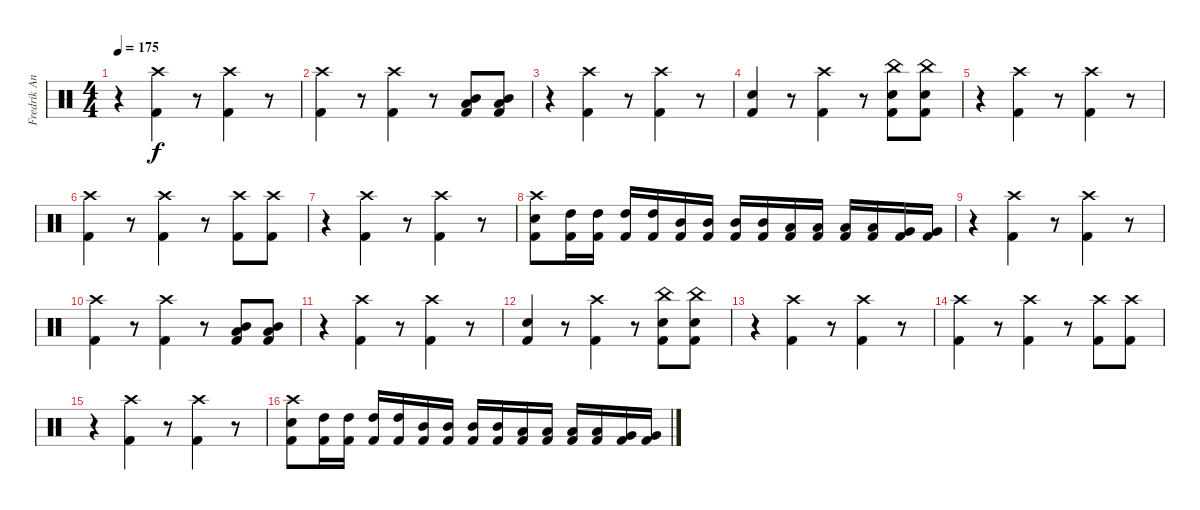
\track ("Fredrik Andersson" "Fredrik An") {instrument percussion}
\staff {score}
\articulation defaults
\ts (4 4)
\tempo 175
\clef neutral
\ks c
r.4{dy f} ("Crash high (hit)" "Kick (hit) 2").4 r.8 ("Crash high (hit)" "Kick (hit) 2").4 r.8 |
("Crash high (hit)" "Kick (hit) 2").4 r.8 ("Crash high (hit)" "Kick (hit) 2").4 r.8 ("Mid Tom (hit)" "Low Tom (hit)" "Kick (hit) 2").8 ("Mid Tom (hit)" "Low Tom (hit)" "Kick (hit) 2").8 |
r.4 ("Crash high (hit)" "Kick (hit) 2").4 r.8 ("Crash high (hit)" "Kick (hit) 2").4 r.8 |
("Electric Snare (hit)" "Kick (hit) 2").4 r.8 ("Crash high (hit)" "Kick (hit) 2").4 r.8 ("China (hit)" "Electric Snare (hit)" "Kick (hit) 2").8 ("China (hit)" "Electric Snare (hit)" "Kick (hit) 2").8 |
r.4 ("Crash high (hit)" "Kick (hit) 2").4 r.8 ("Crash high (hit)" "Kick (hit) 2").4 r.8 |
("Crash high (hit)" "Kick (hit) 2").4 r.8 ("Crash high (hit)" "Kick (hit) 2").4 r.8 ("Crash high (hit)" "Kick (hit) 2").8 ("Crash high (hit)" "Kick (hit) 2").8 |
r.4 ("Crash high (hit)" "Kick (hit) 2").4 r.8 ("Crash high (hit)" "Kick (hit) 2").4 r.8 |
("Crash high (hit)" "Electric Snare (hit)" "Kick (hit) 2").8 ("High Tom (hit)" "Kick (hit) 2").16 ("High Tom (hit)" "Kick (hit) 2").16 ("High Tom (hit)" "Kick (hit) 2").16 ("High Tom (hit)" "Kick (hit) 2").16 ("Mid Tom (hit)" "Kick (hit) 2").16 ("Mid Tom (hit)" "Kick (hit) 2").16 ("Mid Tom (hit)" "Kick (hit) 2").16 ("Mid Tom (hit)" "Kick (hit) 2").16 ("Low Tom (hit)" "Kick (hit) 2").16 ("Low Tom (hit)" "Kick (hit) 2").16 ("Low Tom (hit)" "Kick (hit) 2").16 ("Low Tom (hit)" "Kick (hit) 2").16 ("Very Low Tom (hit)" "Kick (hit) 2").16 ("Very Low Tom (hit)" "Kick (hit) 2").16 |
r.4 ("Crash high (hit)" "Kick (hit) 2").4 r.8 ("Crash high (hit)" "Kick (hit) 2").4 r.8 |
("Crash high (hit)" "Kick (hit) 2").4 r.8 ("Crash high (hit)" "Kick (hit) 2").4 r.8 ("Mid Tom (hit)" "Low Tom (hit)" "Kick (hit) 2").8 ("Mid Tom (hit)" "Low Tom (hit)" "Kick (hit) 2").8 |
r.4 ("Crash high (hit)" "Kick (hit) 2").4 r.8 ("Crash high (hit)" "Kick (hit) 2").4 r.8 |
("Electric Snare (hit)" "Kick (hit) 2").4 r.8 ("Crash high (hit)" "Kick (hit) 2").4 r.8 ("China (hit)" "Electric Snare (hit)" "Kick (hit) 2").8 ("China (hit)" "Electric Snare (hit)" "Kick (hit) 2").8 |
r.4 ("Crash high (hit)" "Kick (hit) 2").4 r.8 ("Crash high (hit)" "Kick (hit) 2").4 r.8 |
("Crash high (hit)" "Kick (hit) 2").4 r.8 ("Crash high (hit)" "Kick (hit) 2").4 r.8 ("Crash high (hit)" "Kick (hit) 2").8 ("Crash high (hit)" "Kick (hit) 2").8 |
r.4 ("Crash high (hit)" "Kick (hit) 2").4 r.8 ("Crash high (hit)" "Kick (hit) 2").4 r.8 |
("Crash high (hit)" "Electric Snare (hit)" "Kick (hit) 2").8 ("High Tom (hit)" "Kick (hit) 2").16 ("High Tom (hit)" "Kick (hit) 2").16 ("High Tom (hit)" "Kick (hit) 2").16 ("High Tom (hit)" "Kick (hit) 2").16 ("Mid Tom (hit)" "Kick (hit) 2").16 ("Mid Tom (hit)" "Kick (hit) 2").16 ("Mid Tom (hit)" "Kick (hit) 2").16 ("Mid Tom (hit)" "Kick (hit) 2").16 ("Low Tom (hit)" "Kick (hit) 2").16 ("Low Tom (hit)" "Kick (hit) 2").16 ("Low Tom (hit)" "Kick (hit) 2").16 ("Low Tom (hit)" "Kick (hit) 2").16 ("Very Low Tom (hit)" "Kick (hit) 2").16 ("Very Low Tom (hit)" "Kick (hit) 2").16
